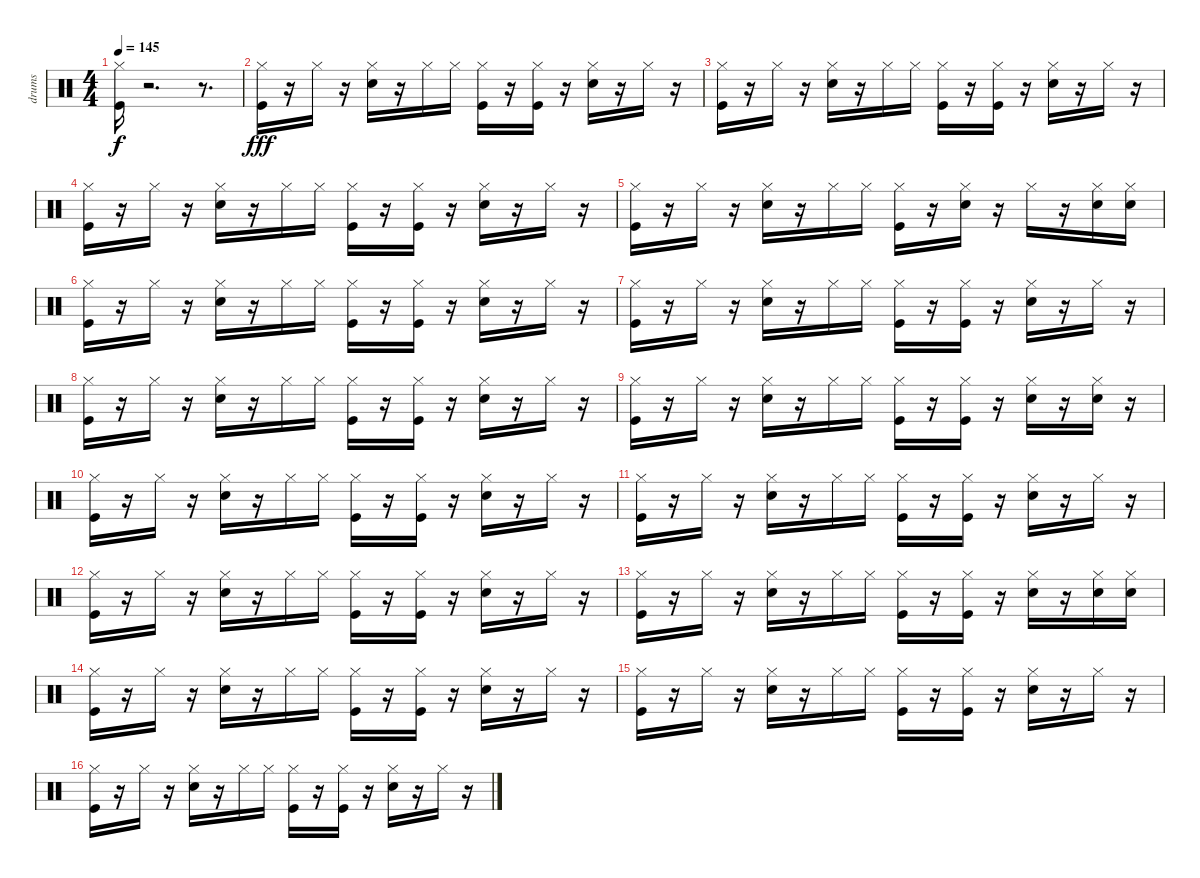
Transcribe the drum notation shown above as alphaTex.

\track ("drums" "drums") {instrument percussion}
\staff {score}
\articulation defaults
\ts (4 4)
\tempo 145
\clef neutral
\ks c
("Hi-Hat (closed)" "Kick (hit)").16{dy f} r.2{d} r.8{d} |
("Kick (hit)" "Hi-Hat (closed)").16{dy fff} r.16 "Hi-Hat (closed)".16 r.16 ("Snare (hit) 2" "Hi-Hat (closed)").16 r.16 "Hi-Hat (closed)".16 "Hi-Hat (closed)".16 ("Kick (hit)" "Hi-Hat (closed)").16 r.16 ("Kick (hit)" "Hi-Hat (closed)").16 r.16 ("Snare (hit) 2" "Hi-Hat (closed)").16 r.16 "Hi-Hat (closed)".16 r.16 |
("Kick (hit)" "Hi-Hat (closed)").16 r.16 "Hi-Hat (closed)".16 r.16 ("Snare (hit) 2" "Hi-Hat (closed)").16 r.16 "Hi-Hat (closed)".16 "Hi-Hat (closed)".16 ("Kick (hit)" "Hi-Hat (closed)").16 r.16 ("Kick (hit)" "Hi-Hat (closed)").16 r.16 ("Snare (hit) 2" "Hi-Hat (closed)").16 r.16 "Hi-Hat (closed)".16 r.16 |
("Kick (hit)" "Hi-Hat (closed)").16 r.16 "Hi-Hat (closed)".16 r.16 ("Snare (hit) 2" "Hi-Hat (closed)").16 r.16 "Hi-Hat (closed)".16 "Hi-Hat (closed)".16 ("Kick (hit)" "Hi-Hat (closed)").16 r.16 ("Kick (hit)" "Hi-Hat (closed)").16 r.16 ("Snare (hit) 2" "Hi-Hat (closed)").16 r.16 "Hi-Hat (closed)".16 r.16 |
("Kick (hit)" "Hi-Hat (closed)").16 r.16 "Hi-Hat (closed)".16 r.16 ("Snare (hit) 2" "Hi-Hat (closed)").16 r.16 "Hi-Hat (closed)".16 "Hi-Hat (closed)".16 ("Kick (hit)" "Hi-Hat (closed)").16 r.16 ("Snare (hit) 2" "Hi-Hat (closed)").16 r.16 "Hi-Hat (closed)".16 r.16 ("Snare (hit) 2" "Hi-Hat (closed)").16 ("Snare (hit) 2" "Hi-Hat (closed)").16 |
("Kick (hit)" "Hi-Hat (closed)").16 r.16 "Hi-Hat (closed)".16 r.16 ("Snare (hit) 2" "Hi-Hat (closed)").16 r.16 "Hi-Hat (closed)".16 "Hi-Hat (closed)".16 ("Kick (hit)" "Hi-Hat (closed)").16 r.16 ("Kick (hit)" "Hi-Hat (closed)").16 r.16 ("Snare (hit) 2" "Hi-Hat (closed)").16 r.16 "Hi-Hat (closed)".16 r.16 |
("Kick (hit)" "Hi-Hat (closed)").16 r.16 "Hi-Hat (closed)".16 r.16 ("Snare (hit) 2" "Hi-Hat (closed)").16 r.16 "Hi-Hat (closed)".16 "Hi-Hat (closed)".16 ("Kick (hit)" "Hi-Hat (closed)").16 r.16 ("Kick (hit)" "Hi-Hat (closed)").16 r.16 ("Snare (hit) 2" "Hi-Hat (closed)").16 r.16 "Hi-Hat (closed)".16 r.16 |
("Kick (hit)" "Hi-Hat (closed)").16 r.16 "Hi-Hat (closed)".16 r.16 ("Snare (hit) 2" "Hi-Hat (closed)").16 r.16 "Hi-Hat (closed)".16 "Hi-Hat (closed)".16 ("Kick (hit)" "Hi-Hat (closed)").16 r.16 ("Kick (hit)" "Hi-Hat (closed)").16 r.16 ("Snare (hit) 2" "Hi-Hat (closed)").16 r.16 "Hi-Hat (closed)".16 r.16 |
("Kick (hit)" "Hi-Hat (closed)").16 r.16 "Hi-Hat (closed)".16 r.16 ("Snare (hit) 2" "Hi-Hat (closed)").16 r.16 "Hi-Hat (closed)".16 "Hi-Hat (closed)".16 ("Kick (hit)" "Hi-Hat (closed)").16 r.16 ("Kick (hit)" "Hi-Hat (closed)").16 r.16 ("Snare (hit) 2" "Hi-Hat (closed)").16 r.16 ("Snare (hit) 2" "Hi-Hat (closed)").16 r.16 |
("Kick (hit)" "Hi-Hat (closed)").16 r.16 "Hi-Hat (closed)".16 r.16 ("Snare (hit) 2" "Hi-Hat (closed)").16 r.16 "Hi-Hat (closed)".16 "Hi-Hat (closed)".16 ("Kick (hit)" "Hi-Hat (closed)").16 r.16 ("Kick (hit)" "Hi-Hat (closed)").16 r.16 ("Snare (hit) 2" "Hi-Hat (closed)").16 r.16 "Hi-Hat (closed)".16 r.16 |
("Kick (hit)" "Hi-Hat (closed)").16 r.16 "Hi-Hat (closed)".16 r.16 ("Snare (hit) 2" "Hi-Hat (closed)").16 r.16 "Hi-Hat (closed)".16 "Hi-Hat (closed)".16 ("Kick (hit)" "Hi-Hat (closed)").16 r.16 ("Kick (hit)" "Hi-Hat (closed)").16 r.16 ("Snare (hit) 2" "Hi-Hat (closed)").16 r.16 "Hi-Hat (closed)".16 r.16 |
("Kick (hit)" "Hi-Hat (closed)").16 r.16 "Hi-Hat (closed)".16 r.16 ("Snare (hit) 2" "Hi-Hat (closed)").16 r.16 "Hi-Hat (closed)".16 "Hi-Hat (closed)".16 ("Kick (hit)" "Hi-Hat (closed)").16 r.16 ("Kick (hit)" "Hi-Hat (closed)").16 r.16 ("Snare (hit) 2" "Hi-Hat (closed)").16 r.16 "Hi-Hat (closed)".16 r.16 |
("Kick (hit)" "Hi-Hat (closed)").16 r.16 "Hi-Hat (closed)".16 r.16 ("Snare (hit) 2" "Hi-Hat (closed)").16 r.16 "Hi-Hat (closed)".16 "Hi-Hat (closed)".16 ("Kick (hit)" "Hi-Hat (closed)").16 r.16 ("Kick (hit)" "Hi-Hat (closed)").16 r.16 ("Snare (hit) 2" "Hi-Hat (closed)").16 r.16 ("Snare (hit) 2" "Hi-Hat (closed)").16 ("Snare (hit) 2" "Hi-Hat (closed)").16 |
("Kick (hit)" "Hi-Hat (closed)").16 r.16 "Hi-Hat (closed)".16 r.16 ("Snare (hit) 2" "Hi-Hat (closed)").16 r.16 "Hi-Hat (closed)".16 "Hi-Hat (closed)".16 ("Kick (hit)" "Hi-Hat (closed)").16 r.16 ("Kick (hit)" "Hi-Hat (closed)").16 r.16 ("Snare (hit) 2" "Hi-Hat (closed)").16 r.16 "Hi-Hat (closed)".16 r.16 |
("Kick (hit)" "Hi-Hat (closed)").16 r.16 "Hi-Hat (closed)".16 r.16 ("Snare (hit) 2" "Hi-Hat (closed)").16 r.16 "Hi-Hat (closed)".16 "Hi-Hat (closed)".16 ("Kick (hit)" "Hi-Hat (closed)").16 r.16 ("Kick (hit)" "Hi-Hat (closed)").16 r.16 ("Snare (hit) 2" "Hi-Hat (closed)").16 r.16 "Hi-Hat (closed)".16 r.16 |
("Kick (hit)" "Hi-Hat (closed)").16 r.16 "Hi-Hat (closed)".16 r.16 ("Snare (hit) 2" "Hi-Hat (closed)").16 r.16 "Hi-Hat (closed)".16 "Hi-Hat (closed)".16 ("Kick (hit)" "Hi-Hat (closed)").16 r.16 ("Kick (hit)" "Hi-Hat (closed)").16 r.16 ("Snare (hit) 2" "Hi-Hat (closed)").16 r.16 "Hi-Hat (closed)".16 r.16
